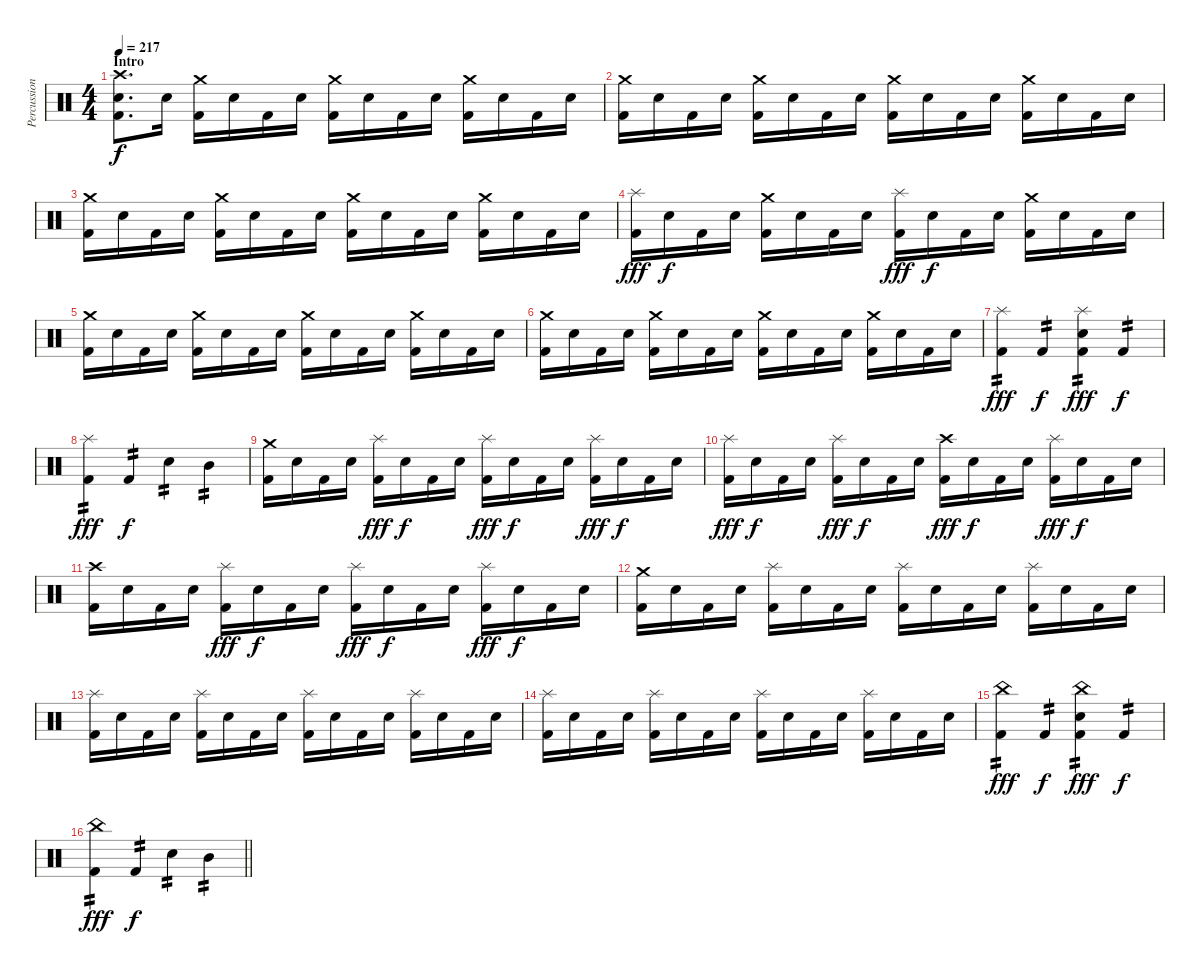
\track ("Percussion" "Percussion") {instrument percussion}
\staff {score}
\articulation defaults
\ts (4 4)
\section ("" "Intro")
\tempo 217
\clef neutral
\ks c
("Crash high (hit)" "Electric Snare (hit)" "Kick (hit) 2").8{d dy f} "Electric Snare (hit)".16 ("Crash medium (hit)" "Kick (hit) 2").16 "Electric Snare (hit)".16 "Kick (hit) 2".16 "Electric Snare (hit)".16 ("Crash medium (hit)" "Kick (hit) 2").16 "Electric Snare (hit)".16 "Kick (hit) 2".16 "Electric Snare (hit)".16 ("Crash medium (hit)" "Kick (hit) 2").16 "Electric Snare (hit)".16 "Kick (hit) 2".16 "Electric Snare (hit)".16 |
("Crash medium (hit)" "Kick (hit) 2").16 "Electric Snare (hit)".16 "Kick (hit) 2".16 "Electric Snare (hit)".16 ("Crash medium (hit)" "Kick (hit) 2").16 "Electric Snare (hit)".16 "Kick (hit) 2".16 "Electric Snare (hit)".16 ("Crash medium (hit)" "Kick (hit) 2").16 "Electric Snare (hit)".16 "Kick (hit) 2".16 "Electric Snare (hit)".16 ("Crash medium (hit)" "Kick (hit) 2").16 "Electric Snare (hit)".16 "Kick (hit) 2".16 "Electric Snare (hit)".16 |
("Crash medium (hit)" "Kick (hit) 2").16 "Electric Snare (hit)".16 "Kick (hit) 2".16 "Electric Snare (hit)".16 ("Crash medium (hit)" "Kick (hit) 2").16 "Electric Snare (hit)".16 "Kick (hit) 2".16 "Electric Snare (hit)".16 ("Crash medium (hit)" "Kick (hit) 2").16 "Electric Snare (hit)".16 "Kick (hit) 2".16 "Electric Snare (hit)".16 ("Crash medium (hit)" "Kick (hit) 2").16 "Electric Snare (hit)".16 "Kick (hit) 2".16 "Electric Snare (hit)".16 |
("Splash (hit)" "Kick (hit) 2").16{dy fff} "Electric Snare (hit)".16{dy f} "Kick (hit) 2".16 "Electric Snare (hit)".16 ("Crash medium (hit)" "Kick (hit) 2").16 "Electric Snare (hit)".16 "Kick (hit) 2".16 "Electric Snare (hit)".16 ("Splash (hit)" "Kick (hit) 2").16{dy fff} "Electric Snare (hit)".16{dy f} "Kick (hit) 2".16 "Electric Snare (hit)".16 ("Crash medium (hit)" "Kick (hit) 2").16 "Electric Snare (hit)".16 "Kick (hit) 2".16 "Electric Snare (hit)".16 |
("Crash medium (hit)" "Kick (hit) 2").16 "Electric Snare (hit)".16 "Kick (hit) 2".16 "Electric Snare (hit)".16 ("Crash medium (hit)" "Kick (hit) 2").16 "Electric Snare (hit)".16 "Kick (hit) 2".16 "Electric Snare (hit)".16 ("Crash medium (hit)" "Kick (hit) 2").16 "Electric Snare (hit)".16 "Kick (hit) 2".16 "Electric Snare (hit)".16 ("Crash medium (hit)" "Kick (hit) 2").16 "Electric Snare (hit)".16 "Kick (hit) 2".16 "Electric Snare (hit)".16 |
("Crash medium (hit)" "Kick (hit) 2").16 "Electric Snare (hit)".16 "Kick (hit) 2".16 "Electric Snare (hit)".16 ("Crash medium (hit)" "Kick (hit) 2").16 "Electric Snare (hit)".16 "Kick (hit) 2".16 "Electric Snare (hit)".16 ("Crash medium (hit)" "Kick (hit) 2").16 "Electric Snare (hit)".16 "Kick (hit) 2".16 "Electric Snare (hit)".16 ("Crash medium (hit)" "Kick (hit) 2").16 "Electric Snare (hit)".16 "Kick (hit) 2".16 "Electric Snare (hit)".16 |
("Splash (hit)" "Kick (hit) 2").4{tp 2 dy fff} "Kick (hit) 2".4{tp 2 dy f} ("Splash (hit)" "Electric Snare (hit)" "Kick (hit) 2").4{tp 2 dy fff} "Kick (hit) 2".4{tp 2 dy f} |
("Splash (hit)" "Kick (hit) 2").4{tp 2 dy fff} "Kick (hit) 2".4{tp 2 dy f} "Electric Snare (hit)".4{tp 2} "Mid Tom (hit)".4{tp 2} |
("Crash medium (hit)" "Kick (hit) 2").16 "Electric Snare (hit)".16 "Kick (hit) 2".16 "Electric Snare (hit)".16 ("Splash (hit)" "Kick (hit) 2").16{dy fff} "Electric Snare (hit)".16{dy f} "Kick (hit) 2".16 "Electric Snare (hit)".16 ("Splash (hit)" "Kick (hit) 2").16{dy fff} "Electric Snare (hit)".16{dy f} "Kick (hit) 2".16 "Electric Snare (hit)".16 ("Splash (hit)" "Kick (hit) 2").16{dy fff} "Electric Snare (hit)".16{dy f} "Kick (hit) 2".16 "Electric Snare (hit)".16 |
("Splash (hit)" "Kick (hit) 2").16{dy fff} "Electric Snare (hit)".16{dy f} "Kick (hit) 2".16 "Electric Snare (hit)".16 ("Splash (hit)" "Kick (hit) 2").16{dy fff} "Electric Snare (hit)".16{dy f} "Kick (hit) 2".16 "Electric Snare (hit)".16 ("Crash high (hit)" "Kick (hit) 2").16{dy fff} "Electric Snare (hit)".16{dy f} "Kick (hit) 2".16 "Electric Snare (hit)".16 ("Splash (hit)" "Kick (hit) 2").16{dy fff} "Electric Snare (hit)".16{dy f} "Kick (hit) 2".16 "Electric Snare (hit)".16 |
("Crash high (hit)" "Kick (hit) 2").16 "Electric Snare (hit)".16 "Kick (hit) 2".16 "Electric Snare (hit)".16 ("Splash (hit)" "Kick (hit) 2").16{dy fff} "Electric Snare (hit)".16{dy f} "Kick (hit) 2".16 "Electric Snare (hit)".16 ("Splash (hit)" "Kick (hit) 2").16{dy fff} "Electric Snare (hit)".16{dy f} "Kick (hit) 2".16 "Electric Snare (hit)".16 ("Splash (hit)" "Kick (hit) 2").16{dy fff} "Electric Snare (hit)".16{dy f} "Kick (hit) 2".16 "Electric Snare (hit)".16 |
("Crash medium (hit)" "Kick (hit) 2").16 "Electric Snare (hit)".16 "Kick (hit) 2".16 "Electric Snare (hit)".16 ("Splash (hit)" "Kick (hit) 2").16 "Electric Snare (hit)".16 "Kick (hit) 2".16 "Electric Snare (hit)".16 ("Splash (hit)" "Kick (hit) 2").16 "Electric Snare (hit)".16 "Kick (hit) 2".16 "Electric Snare (hit)".16 ("Splash (hit)" "Kick (hit) 2").16 "Electric Snare (hit)".16 "Kick (hit) 2".16 "Electric Snare (hit)".16 |
("Splash (hit)" "Kick (hit) 2").16 "Electric Snare (hit)".16 "Kick (hit) 2".16 "Electric Snare (hit)".16 ("Splash (hit)" "Kick (hit) 2").16 "Electric Snare (hit)".16 "Kick (hit) 2".16 "Electric Snare (hit)".16 ("Splash (hit)" "Kick (hit) 2").16 "Electric Snare (hit)".16 "Kick (hit) 2".16 "Electric Snare (hit)".16 ("Splash (hit)" "Kick (hit) 2").16 "Electric Snare (hit)".16 "Kick (hit) 2".16 "Electric Snare (hit)".16 |
("Splash (hit)" "Kick (hit) 2").16 "Electric Snare (hit)".16 "Kick (hit) 2".16 "Electric Snare (hit)".16 ("Splash (hit)" "Kick (hit) 2").16 "Electric Snare (hit)".16 "Kick (hit) 2".16 "Electric Snare (hit)".16 ("Splash (hit)" "Kick (hit) 2").16 "Electric Snare (hit)".16 "Kick (hit) 2".16 "Electric Snare (hit)".16 ("Splash (hit)" "Kick (hit) 2").16 "Electric Snare (hit)".16 "Kick (hit) 2".16 "Electric Snare (hit)".16 |
("China (hit)" "Kick (hit) 2").4{tp 2 dy fff} "Kick (hit) 2".4{tp 2 dy f} ("China (hit)" "Electric Snare (hit)" "Kick (hit) 2").4{tp 2 dy fff} "Kick (hit) 2".4{tp 2 dy f} |
\barLineRight lightlight
("China (hit)" "Kick (hit) 2").4{tp 2 dy fff} "Kick (hit) 2".4{tp 2 dy f} "Electric Snare (hit)".4{tp 2} "Mid Tom (hit)".4{tp 2}
